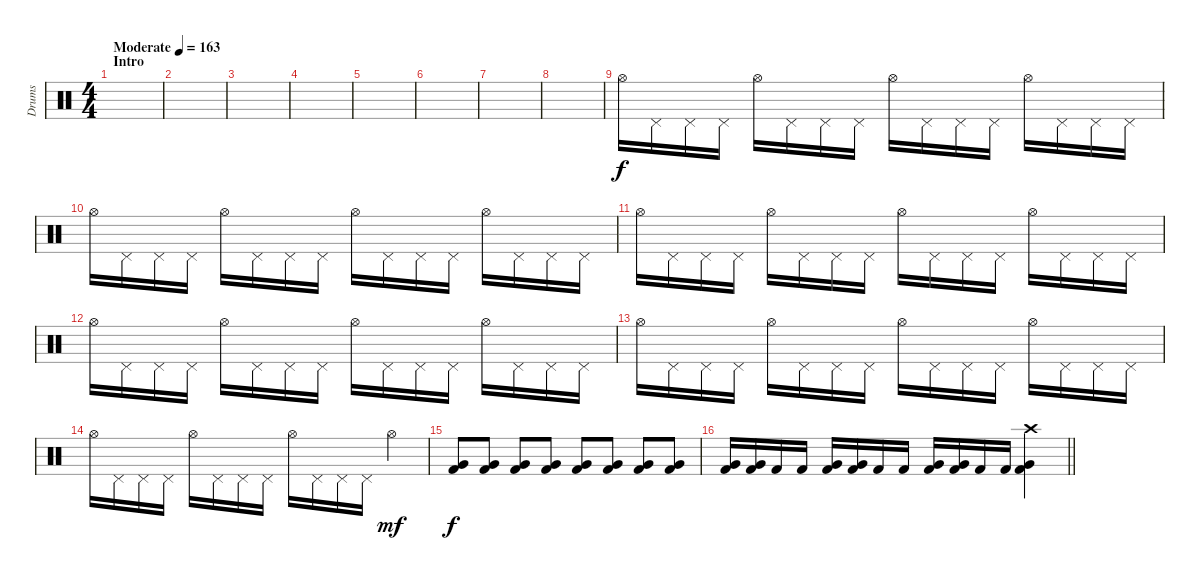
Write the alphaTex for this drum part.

\track ("Drums" "Drums") {instrument percussion}
\staff {score}
\articulation defaults
\ts (4 4)
\section ("" "Intro")
\tempo (163 "Moderate")
\clef neutral
\ks c
|
|
|
|
|
|
|
|
"Hi-Hat (open)".16 "Pedal Hi-Hat (hit)".16 "Pedal Hi-Hat (hit)".16 "Pedal Hi-Hat (hit)".16 "Hi-Hat (open)".16 "Pedal Hi-Hat (hit)".16 "Pedal Hi-Hat (hit)".16 "Pedal Hi-Hat (hit)".16 "Hi-Hat (open)".16 "Pedal Hi-Hat (hit)".16 "Pedal Hi-Hat (hit)".16 "Pedal Hi-Hat (hit)".16 "Hi-Hat (open)".16 "Pedal Hi-Hat (hit)".16 "Pedal Hi-Hat (hit)".16 "Pedal Hi-Hat (hit)".16 |
"Hi-Hat (open)".16 "Pedal Hi-Hat (hit)".16 "Pedal Hi-Hat (hit)".16 "Pedal Hi-Hat (hit)".16 "Hi-Hat (open)".16 "Pedal Hi-Hat (hit)".16 "Pedal Hi-Hat (hit)".16 "Pedal Hi-Hat (hit)".16 "Hi-Hat (open)".16 "Pedal Hi-Hat (hit)".16 "Pedal Hi-Hat (hit)".16 "Pedal Hi-Hat (hit)".16 "Hi-Hat (open)".16 "Pedal Hi-Hat (hit)".16 "Pedal Hi-Hat (hit)".16 "Pedal Hi-Hat (hit)".16 |
"Hi-Hat (open)".16 "Pedal Hi-Hat (hit)".16 "Pedal Hi-Hat (hit)".16 "Pedal Hi-Hat (hit)".16 "Hi-Hat (open)".16 "Pedal Hi-Hat (hit)".16 "Pedal Hi-Hat (hit)".16 "Pedal Hi-Hat (hit)".16 "Hi-Hat (open)".16 "Pedal Hi-Hat (hit)".16 "Pedal Hi-Hat (hit)".16 "Pedal Hi-Hat (hit)".16 "Hi-Hat (open)".16 "Pedal Hi-Hat (hit)".16 "Pedal Hi-Hat (hit)".16 "Pedal Hi-Hat (hit)".16 |
"Hi-Hat (open)".16 "Pedal Hi-Hat (hit)".16 "Pedal Hi-Hat (hit)".16 "Pedal Hi-Hat (hit)".16 "Hi-Hat (open)".16 "Pedal Hi-Hat (hit)".16 "Pedal Hi-Hat (hit)".16 "Pedal Hi-Hat (hit)".16 "Hi-Hat (open)".16 "Pedal Hi-Hat (hit)".16 "Pedal Hi-Hat (hit)".16 "Pedal Hi-Hat (hit)".16 "Hi-Hat (open)".16 "Pedal Hi-Hat (hit)".16 "Pedal Hi-Hat (hit)".16 "Pedal Hi-Hat (hit)".16 |
"Hi-Hat (open)".16 "Pedal Hi-Hat (hit)".16 "Pedal Hi-Hat (hit)".16 "Pedal Hi-Hat (hit)".16 "Hi-Hat (open)".16 "Pedal Hi-Hat (hit)".16 "Pedal Hi-Hat (hit)".16 "Pedal Hi-Hat (hit)".16 "Hi-Hat (open)".16 "Pedal Hi-Hat (hit)".16 "Pedal Hi-Hat (hit)".16 "Pedal Hi-Hat (hit)".16 "Hi-Hat (open)".16 "Pedal Hi-Hat (hit)".16 "Pedal Hi-Hat (hit)".16 "Pedal Hi-Hat (hit)".16 |
"Hi-Hat (open)".16 "Pedal Hi-Hat (hit)".16 "Pedal Hi-Hat (hit)".16 "Pedal Hi-Hat (hit)".16 "Hi-Hat (open)".16 "Pedal Hi-Hat (hit)".16 "Pedal Hi-Hat (hit)".16 "Pedal Hi-Hat (hit)".16 "Hi-Hat (open)".16 "Pedal Hi-Hat (hit)".16 "Pedal Hi-Hat (hit)".16 "Pedal Hi-Hat (hit)".16 "Hi-Hat (open)".4{dy mf} |
("Very Low Tom (hit)" "Kick (hit) 2").8{dy f} ("Very Low Tom (hit)" "Kick (hit) 2").8 ("Very Low Tom (hit)" "Kick (hit) 2").8 ("Very Low Tom (hit)" "Kick (hit) 2").8 ("Very Low Tom (hit)" "Kick (hit) 2").8 ("Very Low Tom (hit)" "Kick (hit) 2").8 ("Very Low Tom (hit)" "Kick (hit) 2").8 ("Very Low Tom (hit)" "Kick (hit) 2").8 |
\barLineRight lightlight
("Very Low Tom (hit)" "Kick (hit) 2").16 ("Very Low Tom (hit)" "Kick (hit) 2").16 "Kick (hit) 2".16 "Kick (hit) 2".16 ("Very Low Tom (hit)" "Kick (hit) 2").16 ("Very Low Tom (hit)" "Kick (hit) 2").16 "Kick (hit) 2".16 "Kick (hit) 2".16 ("Very Low Tom (hit)" "Kick (hit) 2").16 ("Very Low Tom (hit)" "Kick (hit) 2").16 "Kick (hit) 2".16 "Kick (hit) 2".16 ("Crash high (hit)" "Very Low Tom (hit)" "Kick (hit) 2").4
